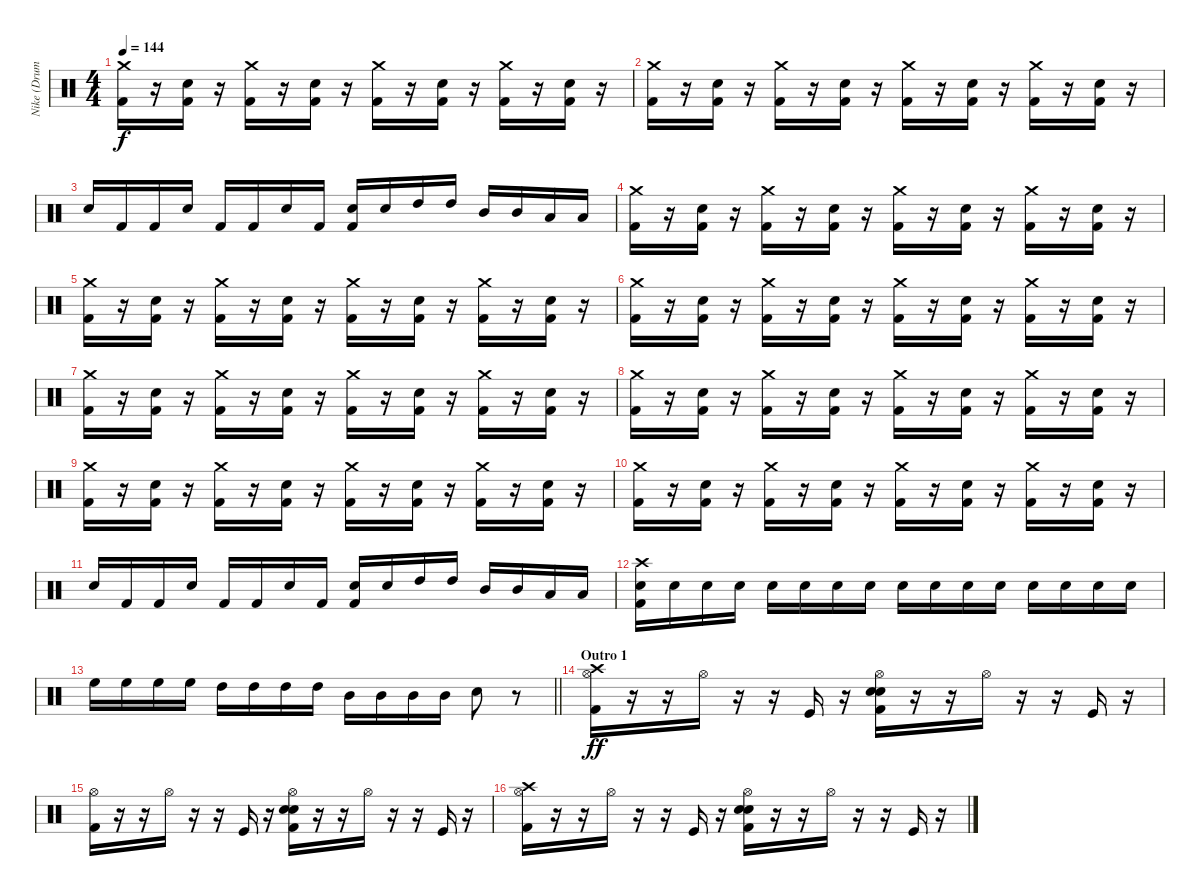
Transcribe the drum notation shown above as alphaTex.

\track ("Nike (Drums)" "Nike (Drum") {instrument percussion}
\staff {score}
\articulation defaults
\ts (4 4)
\tempo 144
\clef neutral
\ks c
("Crash medium (hit)" "Kick (hit) 2").16{dy f} r.16 ("Electric Snare (hit)" "Kick (hit) 2").16 r.16 ("Crash medium (hit)" "Kick (hit) 2").16 r.16 ("Electric Snare (hit)" "Kick (hit) 2").16 r.16 ("Crash medium (hit)" "Kick (hit) 2").16 r.16 ("Electric Snare (hit)" "Kick (hit) 2").16 r.16 ("Crash medium (hit)" "Kick (hit) 2").16 r.16 ("Electric Snare (hit)" "Kick (hit) 2").16 r.16 |
("Crash medium (hit)" "Kick (hit) 2").16 r.16 ("Electric Snare (hit)" "Kick (hit) 2").16 r.16 ("Crash medium (hit)" "Kick (hit) 2").16 r.16 ("Electric Snare (hit)" "Kick (hit) 2").16 r.16 ("Crash medium (hit)" "Kick (hit) 2").16 r.16 ("Electric Snare (hit)" "Kick (hit) 2").16 r.16 ("Crash medium (hit)" "Kick (hit) 2").16 r.16 ("Electric Snare (hit)" "Kick (hit) 2").16 r.16 |
"Electric Snare (hit)".16 "Kick (hit) 2".16 "Kick (hit) 2".16 "Electric Snare (hit)".16 "Kick (hit) 2".16 "Kick (hit) 2".16 "Electric Snare (hit)".16 "Kick (hit) 2".16 ("Kick (hit) 2" "Electric Snare (hit)").16 "Electric Snare (hit)".16 "High Tom (hit)".16 "High Tom (hit)".16 "Mid Tom (hit)".16 "Mid Tom (hit)".16 "Low Tom (hit)".16 "Low Tom (hit)".16 |
("Crash medium (hit)" "Kick (hit) 2").16 r.16 ("Electric Snare (hit)" "Kick (hit) 2").16 r.16 ("Crash medium (hit)" "Kick (hit) 2").16 r.16 ("Electric Snare (hit)" "Kick (hit) 2").16 r.16 ("Crash medium (hit)" "Kick (hit) 2").16 r.16 ("Electric Snare (hit)" "Kick (hit) 2").16 r.16 ("Crash medium (hit)" "Kick (hit) 2").16 r.16 ("Electric Snare (hit)" "Kick (hit) 2").16 r.16 |
("Crash medium (hit)" "Kick (hit) 2").16 r.16 ("Electric Snare (hit)" "Kick (hit) 2").16 r.16 ("Crash medium (hit)" "Kick (hit) 2").16 r.16 ("Electric Snare (hit)" "Kick (hit) 2").16 r.16 ("Crash medium (hit)" "Kick (hit) 2").16 r.16 ("Electric Snare (hit)" "Kick (hit) 2").16 r.16 ("Crash medium (hit)" "Kick (hit) 2").16 r.16 ("Electric Snare (hit)" "Kick (hit) 2").16 r.16 |
("Crash medium (hit)" "Kick (hit) 2").16 r.16 ("Electric Snare (hit)" "Kick (hit) 2").16 r.16 ("Crash medium (hit)" "Kick (hit) 2").16 r.16 ("Electric Snare (hit)" "Kick (hit) 2").16 r.16 ("Crash medium (hit)" "Kick (hit) 2").16 r.16 ("Electric Snare (hit)" "Kick (hit) 2").16 r.16 ("Crash medium (hit)" "Kick (hit) 2").16 r.16 ("Electric Snare (hit)" "Kick (hit) 2").16 r.16 |
("Crash medium (hit)" "Kick (hit) 2").16 r.16 ("Electric Snare (hit)" "Kick (hit) 2").16 r.16 ("Crash medium (hit)" "Kick (hit) 2").16 r.16 ("Electric Snare (hit)" "Kick (hit) 2").16 r.16 ("Crash medium (hit)" "Kick (hit) 2").16 r.16 ("Electric Snare (hit)" "Kick (hit) 2").16 r.16 ("Crash medium (hit)" "Kick (hit) 2").16 r.16 ("Electric Snare (hit)" "Kick (hit) 2").16 r.16 |
("Crash medium (hit)" "Kick (hit) 2").16 r.16 ("Electric Snare (hit)" "Kick (hit) 2").16 r.16 ("Crash medium (hit)" "Kick (hit) 2").16 r.16 ("Electric Snare (hit)" "Kick (hit) 2").16 r.16 ("Crash medium (hit)" "Kick (hit) 2").16 r.16 ("Electric Snare (hit)" "Kick (hit) 2").16 r.16 ("Crash medium (hit)" "Kick (hit) 2").16 r.16 ("Electric Snare (hit)" "Kick (hit) 2").16 r.16 |
("Crash medium (hit)" "Kick (hit) 2").16 r.16 ("Electric Snare (hit)" "Kick (hit) 2").16 r.16 ("Crash medium (hit)" "Kick (hit) 2").16 r.16 ("Electric Snare (hit)" "Kick (hit) 2").16 r.16 ("Crash medium (hit)" "Kick (hit) 2").16 r.16 ("Electric Snare (hit)" "Kick (hit) 2").16 r.16 ("Crash medium (hit)" "Kick (hit) 2").16 r.16 ("Electric Snare (hit)" "Kick (hit) 2").16 r.16 |
("Crash medium (hit)" "Kick (hit) 2").16 r.16 ("Electric Snare (hit)" "Kick (hit) 2").16 r.16 ("Crash medium (hit)" "Kick (hit) 2").16 r.16 ("Electric Snare (hit)" "Kick (hit) 2").16 r.16 ("Crash medium (hit)" "Kick (hit) 2").16 r.16 ("Electric Snare (hit)" "Kick (hit) 2").16 r.16 ("Crash medium (hit)" "Kick (hit) 2").16 r.16 ("Electric Snare (hit)" "Kick (hit) 2").16 r.16 |
"Electric Snare (hit)".16 "Kick (hit) 2".16 "Kick (hit) 2".16 "Electric Snare (hit)".16 "Kick (hit) 2".16 "Kick (hit) 2".16 "Electric Snare (hit)".16 "Kick (hit) 2".16 ("Kick (hit) 2" "Electric Snare (hit)").16 "Electric Snare (hit)".16 "High Tom (hit)".16 "High Tom (hit)".16 "Mid Tom (hit)".16 "Mid Tom (hit)".16 "Low Tom (hit)".16 "Low Tom (hit)".16 |
("Crash high (hit)" "Kick (hit) 2" "Electric Snare (hit)").16 "Electric Snare (hit)".16 "Electric Snare (hit)".16 "Electric Snare (hit)".16 "Electric Snare (hit)".16 "Electric Snare (hit)".16 "Electric Snare (hit)".16 "Electric Snare (hit)".16 "Electric Snare (hit)".16 "Electric Snare (hit)".16 "Electric Snare (hit)".16 "Electric Snare (hit)".16 "Electric Snare (hit)".16 "Electric Snare (hit)".16 "Electric Snare (hit)".16 "Electric Snare (hit)".16 |
\barLineRight lightlight "High Floor Tom (hit)".16 "High Floor Tom (hit)".16 "High Floor Tom (hit)".16 "High Floor Tom (hit)".16 "High Tom (hit)".16 "High Tom (hit)".16 "High Tom (hit)".16 "High Tom (hit)".16 "Mid Tom (hit)".16 "Mid Tom (hit)".16 "Mid Tom (hit)".16 "Mid Tom (hit)".16 "Electric Snare (hit)".8
r.8 |
\section ("" "Outro 1")
("Hi-Hat (open)" "Crash high (hit)" "Kick (hit) 2").16{dy ff} r.16 r.16 "Hi-Hat (open)".16 r.16 r.16 "Kick (hit)".16 r.16 ("Hi-Hat (open)" "Electric Snare (hit)" "Electric Snare (hit)" "Kick (hit) 2").16 r.16 r.16 "Hi-Hat (open)".16 r.16 r.16 "Kick (hit)".16 r.16 |
("Hi-Hat (open)" "Kick (hit) 2").16 r.16 r.16 "Hi-Hat (open)".16 r.16 r.16 "Kick (hit)".16 r.16 ("Hi-Hat (open)" "Electric Snare (hit)" "Electric Snare (hit)" "Kick (hit) 2").16 r.16 r.16 "Hi-Hat (open)".16 r.16 r.16 "Kick (hit)".16 r.16 |
("Hi-Hat (open)" "Crash high (hit)" "Kick (hit) 2").16 r.16 r.16 "Hi-Hat (open)".16 r.16 r.16 "Kick (hit)".16 r.16 ("Hi-Hat (open)" "Electric Snare (hit)" "Electric Snare (hit)" "Kick (hit) 2").16 r.16 r.16 "Hi-Hat (open)".16 r.16 r.16 "Kick (hit)".16 r.16
